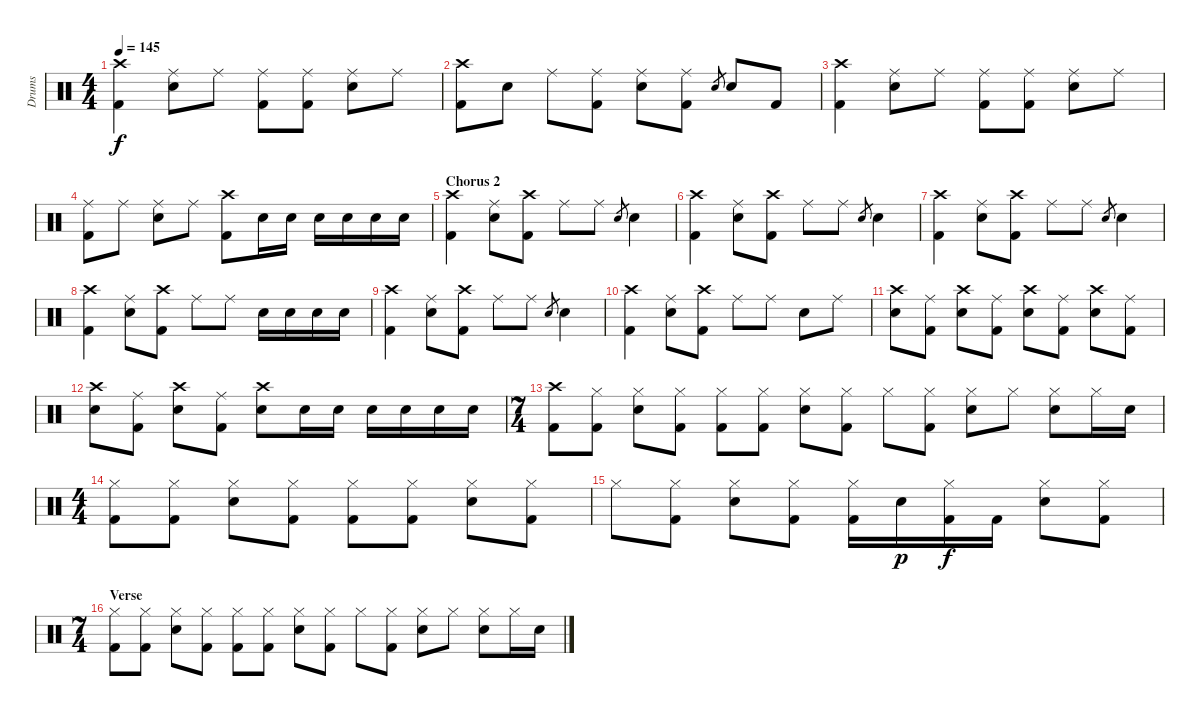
\track ("Drums" "Drums") {instrument percussion}
\staff {score}
\articulation defaults
\ts (4 4)
\tempo 145
\clef neutral
\ks c
("Crash high (hit)" "Kick (hit) 2").4{dy f} ("Ride (middle)" "Electric Snare (hit)").8 "Ride (middle)".8 ("Ride (middle)" "Kick (hit) 2").8 ("Ride (middle)" "Kick (hit) 2").8 ("Ride (middle)" "Electric Snare (hit)").8 "Ride (middle)".8 |
("Crash high (hit)" "Kick (hit) 2").8 "Electric Snare (hit)".8 "Ride (middle)".8 ("Ride (middle)" "Kick (hit) 2").8 ("Ride (middle)" "Electric Snare (hit)").8 ("Ride (middle)" "Kick (hit) 2").8 "Electric Snare (hit)".8{gr} "Electric Snare (hit)".8 "Kick (hit) 2".8 |
("Crash high (hit)" "Kick (hit) 2").4 ("Ride (middle)" "Electric Snare (hit)").8 "Ride (middle)".8 ("Ride (middle)" "Kick (hit) 2").8 ("Ride (middle)" "Kick (hit) 2").8 ("Ride (middle)" "Electric Snare (hit)").8 "Ride (middle)".8 |
("Ride (middle)" "Kick (hit) 2").8 "Ride (middle)".8 ("Ride (middle)" "Electric Snare (hit)").8 "Ride (middle)".8 ("Crash high (hit)" "Kick (hit) 2").8 "Electric Snare (hit)".16 "Electric Snare (hit)".16 "Electric Snare (hit)".16 "Electric Snare (hit)".16 "Electric Snare (hit)".16 "Electric Snare (hit)".16 |
\section ("" "Chorus 2")
("Crash high (hit)" "Kick (hit) 2").4 ("Ride (middle)" "Electric Snare (hit)").8 ("Crash high (hit)" "Kick (hit) 2").8 "Ride (middle)".8 "Ride (middle)".8 "Electric Snare (hit)".8{gr} "Electric Snare (hit)".4 |
("Crash high (hit)" "Kick (hit) 2").4 ("Ride (middle)" "Electric Snare (hit)").8 ("Crash high (hit)" "Kick (hit) 2").8 "Ride (middle)".8 "Ride (middle)".8 "Electric Snare (hit)".8{gr} "Electric Snare (hit)".4 |
("Crash high (hit)" "Kick (hit) 2").4 ("Ride (middle)" "Electric Snare (hit)").8 ("Crash high (hit)" "Kick (hit) 2").8 "Ride (middle)".8 "Ride (middle)".8 "Electric Snare (hit)".8{gr} "Electric Snare (hit)".4 |
("Crash high (hit)" "Kick (hit) 2").4 ("Ride (middle)" "Electric Snare (hit)").8 ("Crash high (hit)" "Kick (hit) 2").8 "Ride (middle)".8 "Ride (middle)".8 "Electric Snare (hit)".16 "Electric Snare (hit)".16 "Electric Snare (hit)".16 "Electric Snare (hit)".16 |
("Crash high (hit)" "Kick (hit) 2").4 ("Ride (middle)" "Electric Snare (hit)").8 ("Crash high (hit)" "Kick (hit) 2").8 "Ride (middle)".8 "Ride (middle)".8 "Electric Snare (hit)".8{gr} "Electric Snare (hit)".4 |
("Crash high (hit)" "Kick (hit) 2").4 ("Ride (middle)" "Electric Snare (hit)").8 ("Crash high (hit)" "Kick (hit) 2").8 "Ride (middle)".8 "Ride (middle)".8 "Electric Snare (hit)".8 "Ride (middle)".8 |
("Crash high (hit)" "Electric Snare (hit)").8 ("Ride (middle)" "Kick (hit) 2").8 ("Crash high (hit)" "Electric Snare (hit)").8 ("Ride (middle)" "Kick (hit) 2").8 ("Crash high (hit)" "Electric Snare (hit)").8 ("Ride (middle)" "Kick (hit) 2").8 ("Crash high (hit)" "Electric Snare (hit)").8 ("Ride (middle)" "Kick (hit) 2").8 |
("Crash high (hit)" "Electric Snare (hit)").8 ("Ride (middle)" "Kick (hit) 2").8 ("Crash high (hit)" "Electric Snare (hit)").8 ("Ride (middle)" "Kick (hit) 2").8 ("Crash high (hit)" "Electric Snare (hit)").8 "Electric Snare (hit)".16 "Electric Snare (hit)".16 "Electric Snare (hit)".16 "Electric Snare (hit)".16 "Electric Snare (hit)".16 "Electric Snare (hit)".16 |
\ts (7 4)
\section ("" "")
("Crash high (hit)" "Kick (hit) 2").8 ("Hi-Hat (closed)" "Kick (hit) 2").8 ("Hi-Hat (closed)" "Electric Snare (hit)").8 ("Hi-Hat (closed)" "Kick (hit) 2").8 ("Hi-Hat (closed)" "Kick (hit) 2").8 ("Hi-Hat (closed)" "Kick (hit) 2").8 ("Hi-Hat (closed)" "Electric Snare (hit)").8 ("Hi-Hat (closed)" "Kick (hit) 2").8 "Hi-Hat (closed)".8 ("Hi-Hat (closed)" "Kick (hit) 2").8 ("Hi-Hat (closed)" "Electric Snare (hit)").8 "Hi-Hat (closed)".8 ("Hi-Hat (closed)" "Electric Snare (hit)").8 "Hi-Hat (closed)".16 "Electric Snare (hit)".16 |
\ts (4 4)
("Hi-Hat (closed)" "Kick (hit) 2").8 ("Hi-Hat (closed)" "Kick (hit) 2").8 ("Hi-Hat (closed)" "Electric Snare (hit)").8 ("Hi-Hat (closed)" "Kick (hit) 2").8 ("Hi-Hat (closed)" "Kick (hit) 2").8 ("Hi-Hat (closed)" "Kick (hit) 2").8 ("Hi-Hat (closed)" "Electric Snare (hit)").8 ("Hi-Hat (closed)" "Kick (hit) 2").8 |
"Hi-Hat (closed)".8 ("Hi-Hat (closed)" "Kick (hit) 2").8 ("Hi-Hat (closed)" "Electric Snare (hit)").8 ("Hi-Hat (closed)" "Kick (hit) 2").8 ("Hi-Hat (closed)" "Kick (hit) 2").16 "Electric Snare (hit)".16{dy p} ("Hi-Hat (closed)" "Kick (hit) 2").16{dy f} "Kick (hit) 2".16 ("Hi-Hat (closed)" "Electric Snare (hit)").8 ("Hi-Hat (closed)" "Kick (hit) 2").8 |
\ts (7 4)
\section ("" "Verse")
("Hi-Hat (closed)" "Kick (hit) 2").8 ("Hi-Hat (closed)" "Kick (hit) 2").8 ("Hi-Hat (closed)" "Electric Snare (hit)").8 ("Hi-Hat (closed)" "Kick (hit) 2").8 ("Hi-Hat (closed)" "Kick (hit) 2").8 ("Hi-Hat (closed)" "Kick (hit) 2").8 ("Hi-Hat (closed)" "Electric Snare (hit)").8 ("Hi-Hat (closed)" "Kick (hit) 2").8 "Hi-Hat (closed)".8 ("Hi-Hat (closed)" "Kick (hit) 2").8 ("Hi-Hat (closed)" "Electric Snare (hit)").8 "Hi-Hat (closed)".8 ("Hi-Hat (closed)" "Electric Snare (hit)").8 "Hi-Hat (closed)".16 "Electric Snare (hit)".16
